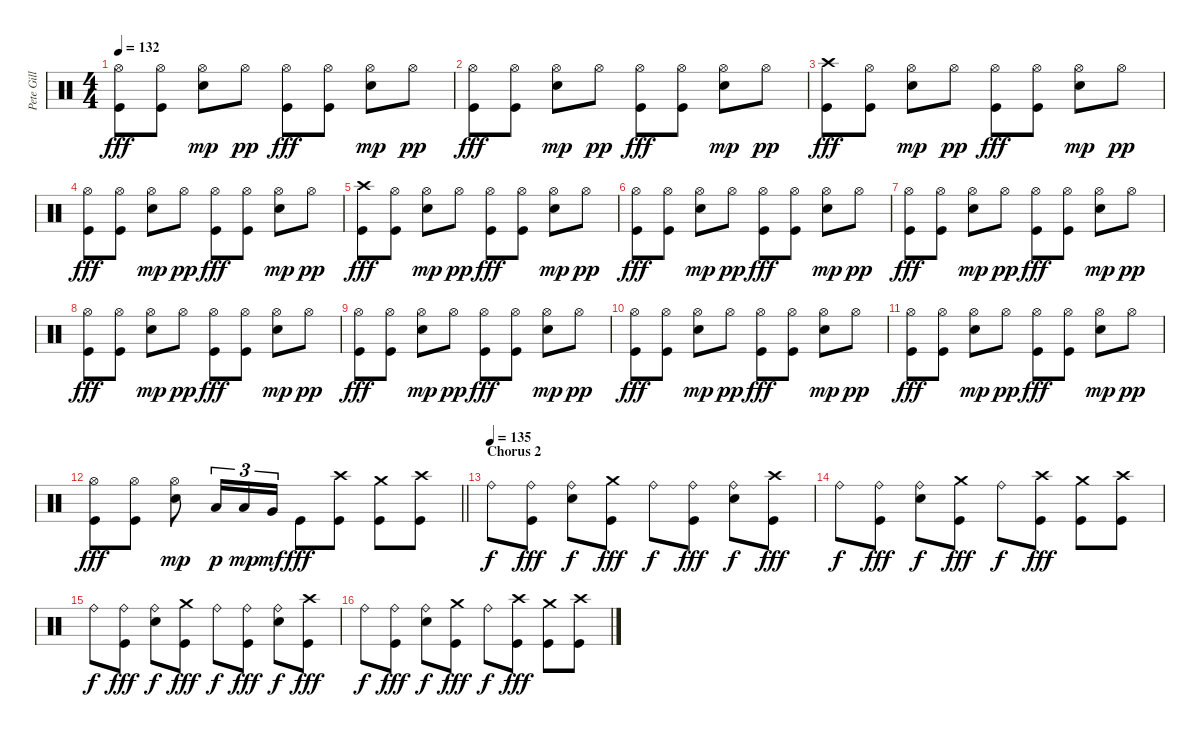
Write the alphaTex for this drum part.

\track ("Pete Gill" "Pete Gill") {instrument percussion}
\staff {score}
\articulation defaults
\ts (4 4)
\tempo 132
\clef neutral
\ks c
("Hi-Hat (open)" "Kick (hit)").8{dy fff} ("Hi-Hat (open)" "Kick (hit)").8 ("Hi-Hat (open)" "Electric Snare (hit)").8{dy mp} "Hi-Hat (open)".8{dy pp} ("Hi-Hat (open)" "Kick (hit)").8{dy fff} ("Hi-Hat (open)" "Kick (hit)").8 ("Hi-Hat (open)" "Electric Snare (hit)").8{dy mp} "Hi-Hat (open)".8{dy pp} |
("Hi-Hat (open)" "Kick (hit)").8{dy fff} ("Hi-Hat (open)" "Kick (hit)").8 ("Hi-Hat (open)" "Electric Snare (hit)").8{dy mp} "Hi-Hat (open)".8{dy pp} ("Hi-Hat (open)" "Kick (hit)").8{dy fff} ("Hi-Hat (open)" "Kick (hit)").8 ("Hi-Hat (open)" "Electric Snare (hit)").8{dy mp} "Hi-Hat (open)".8{dy pp} |
("Crash high (hit)" "Kick (hit)").8{dy fff} ("Hi-Hat (open)" "Kick (hit)").8 ("Hi-Hat (open)" "Electric Snare (hit)").8{dy mp} "Hi-Hat (open)".8{dy pp} ("Hi-Hat (open)" "Kick (hit)").8{dy fff} ("Hi-Hat (open)" "Kick (hit)").8 ("Hi-Hat (open)" "Electric Snare (hit)").8{dy mp} "Hi-Hat (open)".8{dy pp} |
("Hi-Hat (open)" "Kick (hit)").8{dy fff} ("Hi-Hat (open)" "Kick (hit)").8 ("Hi-Hat (open)" "Electric Snare (hit)").8{dy mp} "Hi-Hat (open)".8{dy pp} ("Hi-Hat (open)" "Kick (hit)").8{dy fff} ("Hi-Hat (open)" "Kick (hit)").8 ("Hi-Hat (open)" "Electric Snare (hit)").8{dy mp} "Hi-Hat (open)".8{dy pp} |
("Crash high (hit)" "Kick (hit)").8{dy fff} ("Hi-Hat (open)" "Kick (hit)").8 ("Hi-Hat (open)" "Electric Snare (hit)").8{dy mp} "Hi-Hat (open)".8{dy pp} ("Hi-Hat (open)" "Kick (hit)").8{dy fff} ("Hi-Hat (open)" "Kick (hit)").8 ("Hi-Hat (open)" "Electric Snare (hit)").8{dy mp} "Hi-Hat (open)".8{dy pp} |
("Hi-Hat (open)" "Kick (hit)").8{dy fff} ("Hi-Hat (open)" "Kick (hit)").8 ("Hi-Hat (open)" "Electric Snare (hit)").8{dy mp} "Hi-Hat (open)".8{dy pp} ("Hi-Hat (open)" "Kick (hit)").8{dy fff} ("Hi-Hat (open)" "Kick (hit)").8 ("Hi-Hat (open)" "Electric Snare (hit)").8{dy mp} "Hi-Hat (open)".8{dy pp} |
("Hi-Hat (open)" "Kick (hit)").8{dy fff} ("Hi-Hat (open)" "Kick (hit)").8 ("Hi-Hat (open)" "Electric Snare (hit)").8{dy mp} "Hi-Hat (open)".8{dy pp} ("Hi-Hat (open)" "Kick (hit)").8{dy fff} ("Hi-Hat (open)" "Kick (hit)").8 ("Hi-Hat (open)" "Electric Snare (hit)").8{dy mp} "Hi-Hat (open)".8{dy pp} |
("Hi-Hat (open)" "Kick (hit)").8{dy fff} ("Hi-Hat (open)" "Kick (hit)").8 ("Hi-Hat (open)" "Electric Snare (hit)").8{dy mp} "Hi-Hat (open)".8{dy pp} ("Hi-Hat (open)" "Kick (hit)").8{dy fff} ("Hi-Hat (open)" "Kick (hit)").8 ("Hi-Hat (open)" "Electric Snare (hit)").8{dy mp} "Hi-Hat (open)".8{dy pp} |
("Hi-Hat (open)" "Kick (hit)").8{dy fff} ("Hi-Hat (open)" "Kick (hit)").8 ("Hi-Hat (open)" "Electric Snare (hit)").8{dy mp} "Hi-Hat (open)".8{dy pp} ("Hi-Hat (open)" "Kick (hit)").8{dy fff} ("Hi-Hat (open)" "Kick (hit)").8 ("Hi-Hat (open)" "Electric Snare (hit)").8{dy mp} "Hi-Hat (open)".8{dy pp} |
("Hi-Hat (open)" "Kick (hit)").8{dy fff} ("Hi-Hat (open)" "Kick (hit)").8 ("Hi-Hat (open)" "Electric Snare (hit)").8{dy mp} "Hi-Hat (open)".8{dy pp} ("Hi-Hat (open)" "Kick (hit)").8{dy fff} ("Hi-Hat (open)" "Kick (hit)").8 ("Hi-Hat (open)" "Electric Snare (hit)").8{dy mp} "Hi-Hat (open)".8{dy pp} |
("Hi-Hat (open)" "Kick (hit)").8{dy fff} ("Hi-Hat (open)" "Kick (hit)").8 ("Hi-Hat (open)" "Electric Snare (hit)").8{dy mp} "Hi-Hat (open)".8{dy pp} ("Hi-Hat (open)" "Kick (hit)").8{dy fff} ("Hi-Hat (open)" "Kick (hit)").8 ("Hi-Hat (open)" "Electric Snare (hit)").8{dy mp} "Hi-Hat (open)".8{dy pp} |
\barLineRight lightlight
("Hi-Hat (open)" "Kick (hit)").8{dy fff} ("Hi-Hat (open)" "Kick (hit)").8 ("Hi-Hat (open)" "Electric Snare (hit)").8{dy mp} "Low Tom (hit)".16{tu (3 2) dy p} "Low Tom (hit)".16{tu (3 2) dy mp} "Very Low Tom (hit)".16{tu (3 2) dy mf} "Kick (hit)".8{dy fff} ("Crash high (hit)" "Kick (hit)").8 ("Crash medium (hit)" "Kick (hit)").8 ("Crash high (hit)" "Kick (hit)").8 |
\section ("" "Chorus 2")
\tempo (135)
"Ride (bell)".8{dy f} ("Ride (bell)" "Kick (hit)").8{dy fff} ("Ride (bell)" "Electric Snare (hit)").8{dy f} ("Crash medium (hit)" "Kick (hit)").8{dy fff} "Ride (bell)".8{dy f} ("Ride (bell)" "Kick (hit)").8{dy fff} ("Ride (bell)" "Electric Snare (hit)").8{dy f} ("Crash high (hit)" "Kick (hit)").8{dy fff} |
"Ride (bell)".8{dy f} ("Ride (bell)" "Kick (hit)").8{dy fff} ("Ride (bell)" "Electric Snare (hit)").8{dy f} ("Crash medium (hit)" "Kick (hit)").8{dy fff} "Ride (bell)".8{dy f} ("Crash high (hit)" "Kick (hit)").8{dy fff} ("Crash medium (hit)" "Kick (hit)").8 ("Crash high (hit)" "Kick (hit)").8 |
"Ride (bell)".8{dy f} ("Ride (bell)" "Kick (hit)").8{dy fff} ("Ride (bell)" "Electric Snare (hit)").8{dy f} ("Crash medium (hit)" "Kick (hit)").8{dy fff} "Ride (bell)".8{dy f} ("Ride (bell)" "Kick (hit)").8{dy fff} ("Ride (bell)" "Electric Snare (hit)").8{dy f} ("Crash high (hit)" "Kick (hit)").8{dy fff} |
"Ride (bell)".8{dy f} ("Ride (bell)" "Kick (hit)").8{dy fff} ("Ride (bell)" "Electric Snare (hit)").8{dy f} ("Crash medium (hit)" "Kick (hit)").8{dy fff} "Ride (bell)".8{dy f} ("Crash high (hit)" "Kick (hit)").8{dy fff} ("Crash medium (hit)" "Kick (hit)").8 ("Crash high (hit)" "Kick (hit)").8
